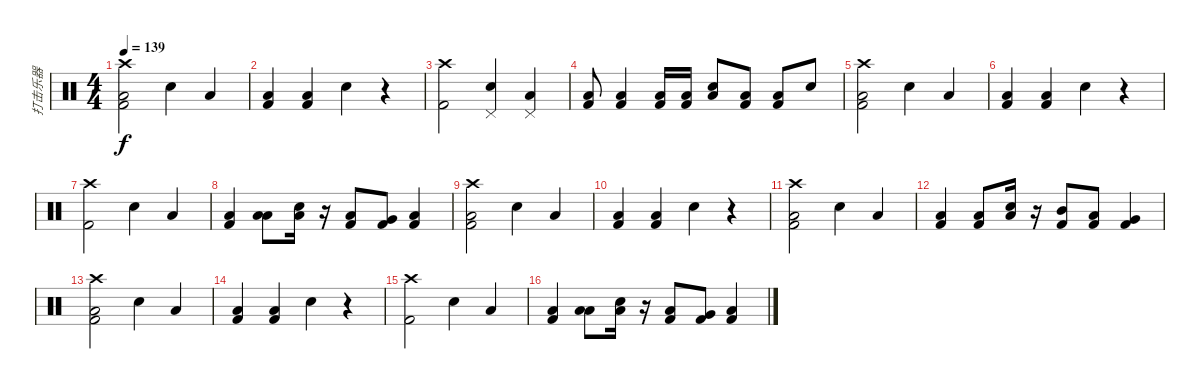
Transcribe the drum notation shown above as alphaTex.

\track ("打击乐器" "打击乐器") {instrument percussion}
\staff {score}
\articulation defaults
\ts (4 4)
\tempo 139
\clef neutral
\ks c
("Crash high (hit)" "Kick (hit) 2" "Low Floor Tom (hit)").2{dy f} "Electric Snare (hit)".4 "Low Floor Tom (hit)".4 |
("Kick (hit) 2" "Low Floor Tom (hit)").4 ("Kick (hit) 2" "Low Floor Tom (hit)").4 "Electric Snare (hit)".4 r.4 |
("Crash high (hit)" "Kick (hit) 2").2 ("Electric Snare (hit)" "Pedal Hi-Hat (hit)").4 ("Low Floor Tom (hit)" "Pedal Hi-Hat (hit)").4 |
("Kick (hit) 2" "Low Tom (hit)").8 ("Kick (hit) 2" "Low Floor Tom (hit)").4 ("Kick (hit) 2" "Low Floor Tom (hit)").16 ("Kick (hit) 2" "Low Floor Tom (hit)").16 ("Electric Snare (hit)" "Low Tom (hit)").8 ("Kick (hit) 2" "Low Floor Tom (hit)").8 ("Kick (hit) 2" "Low Floor Tom (hit)").8 "Electric Snare (hit)".8 |
("Crash high (hit)" "Kick (hit) 2" "Low Floor Tom (hit)").2 "Electric Snare (hit)".4 "Low Floor Tom (hit)".4 |
("Kick (hit) 2" "Low Floor Tom (hit)").4 ("Kick (hit) 2" "Low Floor Tom (hit)").4 "Electric Snare (hit)".4 r.4 |
("Crash high (hit)" "Kick (hit) 2").2 "Electric Snare (hit)".4 "Low Floor Tom (hit)".4 |
("Kick (hit) 2" "Low Floor Tom (hit)").4 ("Low Floor Tom (hit)" "Low Floor Tom (hit)").8 ("Electric Snare (hit)" "Low Floor Tom (hit)").16 r.16 ("Kick (hit) 2" "Low Tom (hit)").8 ("Kick (hit) 2" "Very Low Tom (hit)").8 ("Kick (hit) 2" "Low Floor Tom (hit)").4 |
("Crash high (hit)" "Kick (hit) 2" "Low Floor Tom (hit)").2 "Electric Snare (hit)".4 "Low Floor Tom (hit)".4 |
("Kick (hit) 2" "Low Floor Tom (hit)").4 ("Kick (hit) 2" "Low Floor Tom (hit)").4 "Electric Snare (hit)".4 r.4 |
("Crash high (hit)" "Kick (hit) 2" "Low Floor Tom (hit)").2 "Electric Snare (hit)".4 "Low Floor Tom (hit)".4 |
("Kick (hit) 2" "Low Floor Tom (hit)").4 ("Kick (hit) 2" "Low Floor Tom (hit)").8 ("Electric Snare (hit)" "Low Floor Tom (hit)").16 r.16 ("Kick (hit) 2" "Mid Tom (hit)").8 ("Kick (hit) 2" "Low Tom (hit)").8 ("Kick (hit) 2" "Very Low Tom (hit)").4 |
("Crash high (hit)" "Kick (hit) 2" "Low Floor Tom (hit)").2 "Electric Snare (hit)".4 "Low Floor Tom (hit)".4 |
("Kick (hit) 2" "Low Floor Tom (hit)").4 ("Kick (hit) 2" "Low Floor Tom (hit)").4 "Electric Snare (hit)".4 r.4 |
("Crash high (hit)" "Kick (hit) 2").2 "Electric Snare (hit)".4 "Low Floor Tom (hit)".4 |
("Kick (hit) 2" "Low Floor Tom (hit)").4 ("Low Floor Tom (hit)" "Low Floor Tom (hit)").8 ("Electric Snare (hit)" "Low Floor Tom (hit)").16 r.16 ("Kick (hit) 2" "Low Tom (hit)").8 ("Kick (hit) 2" "Very Low Tom (hit)").8 ("Kick (hit) 2" "Low Floor Tom (hit)").4
